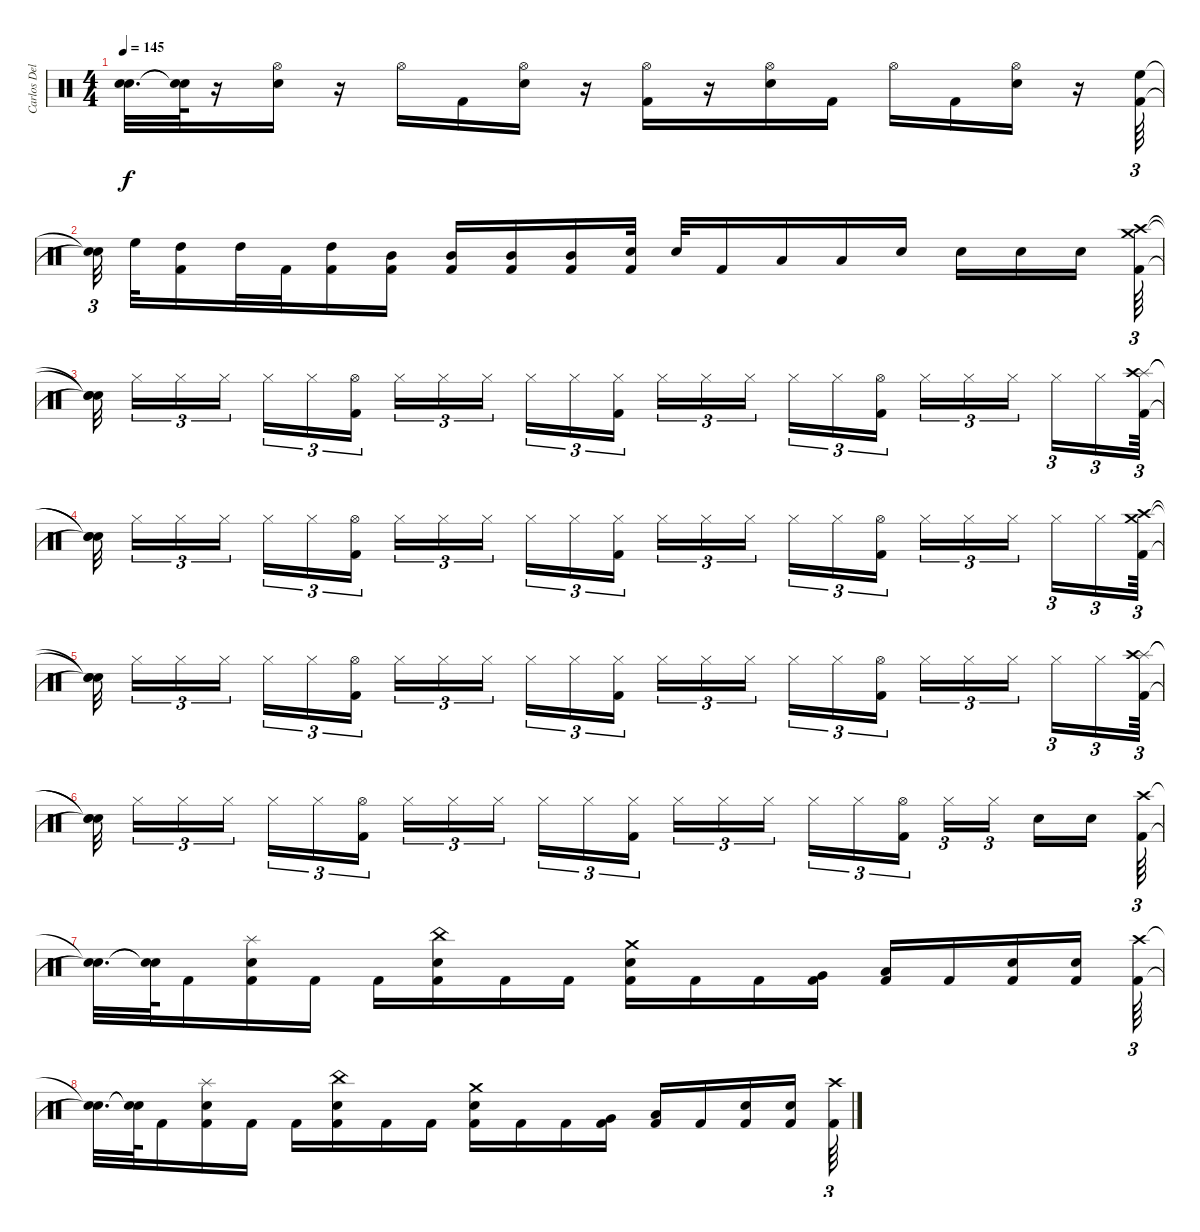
\track ("Carlos Delgado" "Carlos Del") {instrument percussion}
\staff {score}
\articulation defaults
\ts (4 4)
\tempo 145
\clef neutral
\ks c
("Snare (hit)"{t} "Snare (hit)"{t}).32{d dy f} ("Snare (hit)"{t} "Snare (hit)"{t}).64 r.16 ("Hi-Hat (open)" "Electric Snare (hit)").16 r.16 "Hi-Hat (open)".16 "Kick (hit) 2".16 ("Hi-Hat (open)" "Electric Snare (hit)").16 r.16 ("Hi-Hat (open)" "Kick (hit) 2").16 r.16 ("Hi-Hat (open)" "Electric Snare (hit)").16 "Kick (hit) 2".16 "Hi-Hat (open)".16 "Kick (hit) 2".16 ("Electric Snare (hit)" "Hi-Hat (open)").16 r.16 ("Kick (hit) 2" "High Floor Tom (hit)").64{tu (3 2)} |
("Snare (hit)"{t} "Snare (hit)"{t}).32{tu (3 2) beam splitsecondary} "High Floor Tom (hit)".32 ("Kick (hit) 2" "High Tom (hit)").16 "High Tom (hit)".32 "Kick (hit) 2".32 ("High Tom (hit)" "Kick (hit) 2").16 ("Kick (hit) 2" "Mid Tom (hit)").16 ("Mid Tom (hit)" "Kick (hit) 2").16 ("Kick (hit) 2" "Mid Tom (hit)").16 ("Kick (hit) 2" "Mid Tom (hit)").16 ("Kick (hit) 2" "Electric Snare (hit)").32 "Electric Snare (hit)".32 "Kick (hit) 2".16 "Low Tom (hit)".16 "Low Tom (hit)".16 "Electric Snare (hit)".16 "Electric Snare (hit)".16 "Electric Snare (hit)".16 "Electric Snare (hit)".16{beam splitsecondary} ("Crash medium (hit)" "Crash high (hit)" "Kick (hit) 2").64{tu (3 2)} |
("Snare (hit)"{t} "Snare (hit)"{t} "Snare (hit)"{t}).32{beam splitsecondary} "Hi-Hat (closed)".16{tu (3 2)} "Hi-Hat (closed)".16{tu (3 2)} "Hi-Hat (closed)".16{tu (3 2) beam splitsecondary} "Hi-Hat (closed)".16{tu (3 2)} "Hi-Hat (closed)".16{tu (3 2)} ("Hi-Hat (open)" "Kick (hit) 2").16{tu (3 2)} "Hi-Hat (closed)".16{tu (3 2)} "Hi-Hat (closed)".16{tu (3 2)} "Hi-Hat (closed)".16{tu (3 2) beam splitsecondary} "Hi-Hat (closed)".16{tu (3 2)} "Hi-Hat (closed)".16{tu (3 2)} ("Kick (hit) 2" "Hi-Hat (closed)").16{tu (3 2)} "Hi-Hat (closed)".16{tu (3 2)} "Hi-Hat (closed)".16{tu (3 2)} "Hi-Hat (closed)".16{tu (3 2) beam splitsecondary} "Hi-Hat (closed)".16{tu (3 2)} "Hi-Hat (closed)".16{tu (3 2)} ("Kick (hit) 2" "Hi-Hat (open)").16{tu (3 2)} "Hi-Hat (closed)".16{tu (3 2)} "Hi-Hat (closed)".16{tu (3 2)} "Hi-Hat (closed)".16{tu (3 2) beam splitsecondary} "Hi-Hat (closed)".16{tu (3 2)} "Hi-Hat (closed)".16{tu (3 2)} ("Splash (hit)" "Kick (hit) 2" "Crash high (hit)").64{tu (3 2)} |
("Snare (hit)"{t} "Snare (hit)"{t} "Snare (hit)"{t}).32{beam splitsecondary} "Hi-Hat (closed)".16{tu (3 2)} "Hi-Hat (closed)".16{tu (3 2)} "Hi-Hat (closed)".16{tu (3 2) beam splitsecondary} "Hi-Hat (closed)".16{tu (3 2)} "Hi-Hat (closed)".16{tu (3 2)} ("Hi-Hat (open)" "Kick (hit) 2").16{tu (3 2)} "Hi-Hat (closed)".16{tu (3 2)} "Hi-Hat (closed)".16{tu (3 2)} "Hi-Hat (closed)".16{tu (3 2) beam splitsecondary} "Hi-Hat (closed)".16{tu (3 2)} "Hi-Hat (closed)".16{tu (3 2)} ("Hi-Hat (closed)" "Kick (hit) 2").16{tu (3 2)} "Hi-Hat (closed)".16{tu (3 2)} "Hi-Hat (closed)".16{tu (3 2)} "Hi-Hat (closed)".16{tu (3 2) beam splitsecondary} "Hi-Hat (closed)".16{tu (3 2)} "Hi-Hat (closed)".16{tu (3 2)} ("Hi-Hat (open)" "Kick (hit) 2").16{tu (3 2)} "Hi-Hat (closed)".16{tu (3 2)} "Hi-Hat (closed)".16{tu (3 2)} "Hi-Hat (closed)".16{tu (3 2) beam splitsecondary} "Hi-Hat (closed)".16{tu (3 2)} "Hi-Hat (closed)".16{tu (3 2)} ("Kick (hit) 2" "Crash high (hit)" "Crash medium (hit)").64{tu (3 2)} |
("Snare (hit)"{t} "Snare (hit)"{t} "Snare (hit)"{t}).32{beam splitsecondary} "Hi-Hat (closed)".16{tu (3 2)} "Hi-Hat (closed)".16{tu (3 2)} "Hi-Hat (closed)".16{tu (3 2) beam splitsecondary} "Hi-Hat (closed)".16{tu (3 2)} "Hi-Hat (closed)".16{tu (3 2)} ("Hi-Hat (open)" "Kick (hit) 2").16{tu (3 2)} "Hi-Hat (closed)".16{tu (3 2)} "Hi-Hat (closed)".16{tu (3 2)} "Hi-Hat (closed)".16{tu (3 2) beam splitsecondary} "Hi-Hat (closed)".16{tu (3 2)} "Hi-Hat (closed)".16{tu (3 2)} ("Kick (hit) 2" "Hi-Hat (closed)").16{tu (3 2)} "Hi-Hat (closed)".16{tu (3 2)} "Hi-Hat (closed)".16{tu (3 2)} "Hi-Hat (closed)".16{tu (3 2) beam splitsecondary} "Hi-Hat (closed)".16{tu (3 2)} "Hi-Hat (closed)".16{tu (3 2)} ("Kick (hit) 2" "Hi-Hat (open)").16{tu (3 2)} "Hi-Hat (closed)".16{tu (3 2)} "Hi-Hat (closed)".16{tu (3 2)} "Hi-Hat (closed)".16{tu (3 2) beam splitsecondary} "Hi-Hat (closed)".16{tu (3 2)} "Hi-Hat (closed)".16{tu (3 2)} ("Splash (hit)" "Kick (hit) 2" "Crash high (hit)").64{tu (3 2)} |
("Snare (hit)"{t} "Snare (hit)"{t} "Snare (hit)"{t}).32{beam splitsecondary} "Hi-Hat (closed)".16{tu (3 2)} "Hi-Hat (closed)".16{tu (3 2)} "Hi-Hat (closed)".16{tu (3 2) beam splitsecondary} "Hi-Hat (closed)".16{tu (3 2)} "Hi-Hat (closed)".16{tu (3 2)} ("Hi-Hat (open)" "Kick (hit) 2").16{tu (3 2)} "Hi-Hat (closed)".16{tu (3 2)} "Hi-Hat (closed)".16{tu (3 2)} "Hi-Hat (closed)".16{tu (3 2) beam splitsecondary} "Hi-Hat (closed)".16{tu (3 2)} "Hi-Hat (closed)".16{tu (3 2)} ("Kick (hit) 2" "Hi-Hat (closed)").16{tu (3 2)} "Hi-Hat (closed)".16{tu (3 2)} "Hi-Hat (closed)".16{tu (3 2)} "Hi-Hat (closed)".16{tu (3 2) beam splitsecondary} "Hi-Hat (closed)".16{tu (3 2)} "Hi-Hat (closed)".16{tu (3 2)} ("Hi-Hat (open)" "Kick (hit) 2").16{tu (3 2)} "Hi-Hat (closed)".16{tu (3 2)} "Hi-Hat (closed)".16{tu (3 2) beam splitsecondary} "Electric Snare (hit)".16 "Electric Snare (hit)".16{beam splitsecondary} ("Crash high (hit)" "Kick (hit) 2").64{tu (3 2)} |
("Snare (hit)"{t} "Snare (hit)"{t}).32{d} ("Snare (hit)"{t} "Snare (hit)"{t}).64 "Kick (hit) 2".16 ("Splash (hit)" "Kick (hit) 2" "Electric Snare (hit)").16 "Kick (hit) 2".16 "Kick (hit) 2".16 ("China (hit)" "Kick (hit) 2" "Electric Snare (hit)").16 "Kick (hit) 2".16 "Kick (hit) 2".16 ("Crash medium (hit)" "Electric Snare (hit)" "Kick (hit) 2").16 "Kick (hit) 2".16 "Kick (hit) 2".16 ("Very Low Tom (hit)" "Kick (hit) 2").16 ("Low Floor Tom (hit)" "Kick (hit) 2").16 "Kick (hit) 2".16 ("Electric Snare (hit)" "Kick (hit) 2").16 ("Electric Snare (hit)" "Kick (hit) 2").16 ("Crash high (hit)" "Kick (hit) 2").64{tu (3 2)} |
("Snare (hit)"{t} "Snare (hit)"{t}).32{d} ("Snare (hit)"{t} "Snare (hit)"{t}).64 "Kick (hit) 2".16 ("Electric Snare (hit)" "Kick (hit) 2" "Splash (hit)").16 "Kick (hit) 2".16 "Kick (hit) 2".16 ("Kick (hit) 2" "China (hit)" "Electric Snare (hit)").16 "Kick (hit) 2".16 "Kick (hit) 2".16 ("Kick (hit) 2" "Crash medium (hit)" "Electric Snare (hit)").16 "Kick (hit) 2".16 "Kick (hit) 2".16 ("Kick (hit) 2" "Very Low Tom (hit)").16 ("Kick (hit) 2" "Low Floor Tom (hit)").16 "Kick (hit) 2".16 ("Kick (hit) 2" "Electric Snare (hit)").16 ("Electric Snare (hit)" "Kick (hit) 2").16 ("Crash high (hit)" "Kick (hit) 2").64{tu (3 2)}
